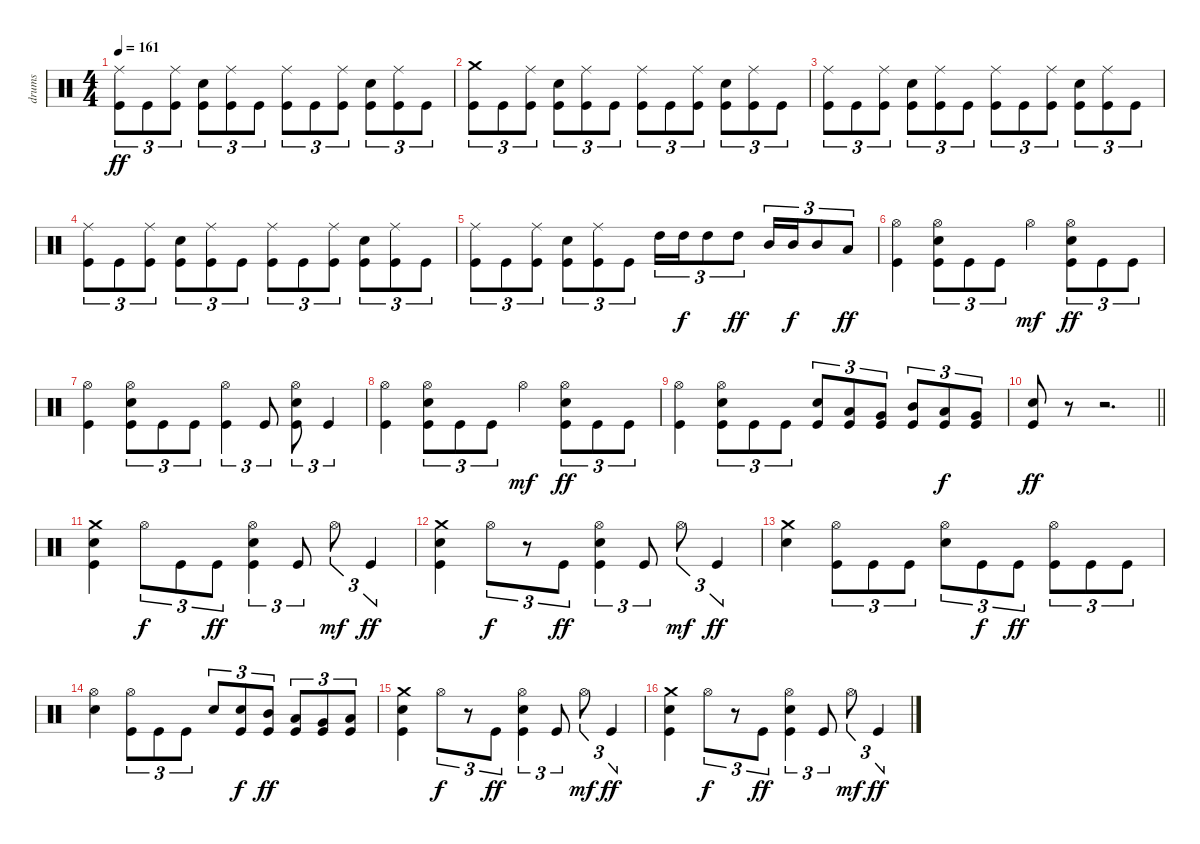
\track ("drums" "drums") {instrument percussion}
\staff {score}
\articulation defaults
\ts (4 4)
\tempo 161
\clef neutral
\ks c
("Ride (middle)" "Kick (hit)").8{tu (3 2) dy ff} "Kick (hit)".8{tu (3 2)} ("Ride (middle)" "Kick (hit)").8{tu (3 2)} ("Electric Snare (hit)" "Kick (hit)").8{tu (3 2)} ("Ride (middle)" "Kick (hit)").8{tu (3 2)} "Kick (hit)".8{tu (3 2)} ("Ride (middle)" "Kick (hit)").8{tu (3 2)} "Kick (hit)".8{tu (3 2)} ("Ride (middle)" "Kick (hit)").8{tu (3 2)} ("Electric Snare (hit)" "Kick (hit)").8{tu (3 2)} ("Ride (middle)" "Kick (hit)").8{tu (3 2)} "Kick (hit)".8{tu (3 2)} |
("Crash medium (hit)" "Kick (hit)").8{tu (3 2)} "Kick (hit)".8{tu (3 2)} ("Ride (middle)" "Kick (hit)").8{tu (3 2)} ("Electric Snare (hit)" "Kick (hit)").8{tu (3 2)} ("Ride (middle)" "Kick (hit)").8{tu (3 2)} "Kick (hit)".8{tu (3 2)} ("Ride (middle)" "Kick (hit)").8{tu (3 2)} "Kick (hit)".8{tu (3 2)} ("Ride (middle)" "Kick (hit)").8{tu (3 2)} ("Electric Snare (hit)" "Kick (hit)").8{tu (3 2)} ("Ride (middle)" "Kick (hit)").8{tu (3 2)} "Kick (hit)".8{tu (3 2)} |
("Ride (middle)" "Kick (hit)").8{tu (3 2)} "Kick (hit)".8{tu (3 2)} ("Ride (middle)" "Kick (hit)").8{tu (3 2)} ("Electric Snare (hit)" "Kick (hit)").8{tu (3 2)} ("Ride (middle)" "Kick (hit)").8{tu (3 2)} "Kick (hit)".8{tu (3 2)} ("Ride (middle)" "Kick (hit)").8{tu (3 2)} "Kick (hit)".8{tu (3 2)} ("Ride (middle)" "Kick (hit)").8{tu (3 2)} ("Electric Snare (hit)" "Kick (hit)").8{tu (3 2)} ("Ride (middle)" "Kick (hit)").8{tu (3 2)} "Kick (hit)".8{tu (3 2)} |
("Ride (middle)" "Kick (hit)").8{tu (3 2)} "Kick (hit)".8{tu (3 2)} ("Ride (middle)" "Kick (hit)").8{tu (3 2)} ("Electric Snare (hit)" "Kick (hit)").8{tu (3 2)} ("Ride (middle)" "Kick (hit)").8{tu (3 2)} "Kick (hit)".8{tu (3 2)} ("Ride (middle)" "Kick (hit)").8{tu (3 2)} "Kick (hit)".8{tu (3 2)} ("Ride (middle)" "Kick (hit)").8{tu (3 2)} ("Electric Snare (hit)" "Kick (hit)").8{tu (3 2)} ("Ride (middle)" "Kick (hit)").8{tu (3 2)} "Kick (hit)".8{tu (3 2)} |
("Ride (middle)" "Kick (hit)").8{tu (3 2)} "Kick (hit)".8{tu (3 2)} ("Ride (middle)" "Kick (hit)").8{tu (3 2)} ("Electric Snare (hit)" "Kick (hit)").8{tu (3 2)} ("Ride (middle)" "Kick (hit)").8{tu (3 2)} "Kick (hit)".8{tu (3 2)} "High Tom (hit)".16{tu (3 2)} "High Tom (hit)".16{tu (3 2) dy f} "High Tom (hit)".8{tu (3 2)} "High Tom (hit)".8{tu (3 2) dy ff} "Mid Tom (hit)".16{tu (3 2)} "Mid Tom (hit)".16{tu (3 2) dy f} "Mid Tom (hit)".8{tu (3 2)} "Low Tom (hit)".8{tu (3 2) dy ff} |
("Hi-Hat (open)" "Kick (hit)").4 ("Hi-Hat (open)" "Electric Snare (hit)" "Kick (hit)").8{tu (3 2)} "Kick (hit)".8{tu (3 2)} "Kick (hit)".8{tu (3 2)} "Hi-Hat (open)".4{dy mf} ("Hi-Hat (open)" "Electric Snare (hit)" "Kick (hit)").8{tu (3 2) dy ff} "Kick (hit)".8{tu (3 2)} "Kick (hit)".8{tu (3 2)} |
("Hi-Hat (open)" "Kick (hit)").4 ("Hi-Hat (open)" "Electric Snare (hit)" "Kick (hit)").8{tu (3 2)} "Kick (hit)".8{tu (3 2)} "Kick (hit)".8{tu (3 2)} ("Hi-Hat (open)" "Kick (hit)").4{tu (3 2)} "Kick (hit)".8{tu (3 2)} ("Hi-Hat (open)" "Electric Snare (hit)" "Kick (hit)").8{tu (3 2)} "Kick (hit)".4{tu (3 2)} |
("Hi-Hat (open)" "Kick (hit)").4 ("Hi-Hat (open)" "Electric Snare (hit)" "Kick (hit)").8{tu (3 2)} "Kick (hit)".8{tu (3 2)} "Kick (hit)".8{tu (3 2)} "Hi-Hat (open)".4{dy mf} ("Hi-Hat (open)" "Electric Snare (hit)" "Kick (hit)").8{tu (3 2) dy ff} "Kick (hit)".8{tu (3 2)} "Kick (hit)".8{tu (3 2)} |
("Hi-Hat (open)" "Kick (hit)").4 ("Hi-Hat (open)" "Electric Snare (hit)" "Kick (hit)").8{tu (3 2)} "Kick (hit)".8{tu (3 2)} "Kick (hit)".8{tu (3 2)} ("Electric Snare (hit)" "Kick (hit)").8{tu (3 2)} ("Low Tom (hit)" "Kick (hit)").8{tu (3 2)} ("Very Low Tom (hit)" "Kick (hit)").8{tu (3 2)} ("Mid Tom (hit)" "Kick (hit)").8{tu (3 2)} ("Low Tom (hit)" "Kick (hit)").8{tu (3 2) dy f} ("Very Low Tom (hit)" "Kick (hit)").8{tu (3 2)} |
\barLineRight lightlight
("Electric Snare (hit)" "Kick (hit)").8{dy ff} r.8 r.2{d} |
("Crash medium (hit)" "Electric Snare (hit)" "Kick (hit)").4 "Hi-Hat (open)".8{tu (3 2) dy f} "Kick (hit)".8{tu (3 2)} "Kick (hit)".8{tu (3 2) dy ff} ("Hi-Hat (open)" "Electric Snare (hit)" "Kick (hit)").4{tu (3 2)} "Kick (hit)".8{tu (3 2)} "Hi-Hat (open)".8{tu (3 2) dy mf} "Kick (hit)".4{tu (3 2) dy ff} |
("Crash medium (hit)" "Electric Snare (hit)" "Kick (hit)").4 "Hi-Hat (open)".8{tu (3 2) dy f} r.8{tu (3 2)} "Kick (hit)".8{tu (3 2) dy ff} ("Hi-Hat (open)" "Electric Snare (hit)" "Kick (hit)").4{tu (3 2)} "Kick (hit)".8{tu (3 2)} "Hi-Hat (open)".8{tu (3 2) dy mf} "Kick (hit)".4{tu (3 2) dy ff} |
("Crash medium (hit)" "Electric Snare (hit)").4 ("Hi-Hat (open)" "Kick (hit)").8{tu (3 2)} "Kick (hit)".8{tu (3 2)} "Kick (hit)".8{tu (3 2)} ("Hi-Hat (open)" "Electric Snare (hit)").8{tu (3 2)} "Kick (hit)".8{tu (3 2) dy f} "Kick (hit)".8{tu (3 2) dy ff} ("Hi-Hat (open)" "Kick (hit)").8{tu (3 2)} "Kick (hit)".8{tu (3 2)} "Kick (hit)".8{tu (3 2)} |
("Hi-Hat (open)" "Electric Snare (hit)").4 ("Hi-Hat (open)" "Kick (hit)").8{tu (3 2)} "Kick (hit)".8{tu (3 2)} "Kick (hit)".8{tu (3 2)} "Electric Snare (hit)".8{tu (3 2)} ("Electric Snare (hit)" "Kick (hit)").8{tu (3 2) dy f} ("Mid Tom (hit)" "Kick (hit)").8{tu (3 2) dy ff} ("Low Tom (hit)" "Kick (hit)").8{tu (3 2)} ("Very Low Tom (hit)" "Kick (hit)").8{tu (3 2)} ("Low Floor Tom (hit)" "Kick (hit)").8{tu (3 2)} |
("Crash medium (hit)" "Electric Snare (hit)" "Kick (hit)").4 "Hi-Hat (open)".8{tu (3 2) dy f} r.8{tu (3 2)} "Kick (hit)".8{tu (3 2) dy ff} ("Hi-Hat (open)" "Electric Snare (hit)" "Kick (hit)").4{tu (3 2)} "Kick (hit)".8{tu (3 2)} "Hi-Hat (open)".8{tu (3 2) dy mf} "Kick (hit)".4{tu (3 2) dy ff} |
("Crash medium (hit)" "Electric Snare (hit)" "Kick (hit)").4 "Hi-Hat (open)".8{tu (3 2) dy f} r.8{tu (3 2)} "Kick (hit)".8{tu (3 2) dy ff} ("Hi-Hat (open)" "Electric Snare (hit)" "Kick (hit)").4{tu (3 2)} "Kick (hit)".8{tu (3 2)} "Hi-Hat (open)".8{tu (3 2) dy mf} "Kick (hit)".4{tu (3 2) dy ff}
